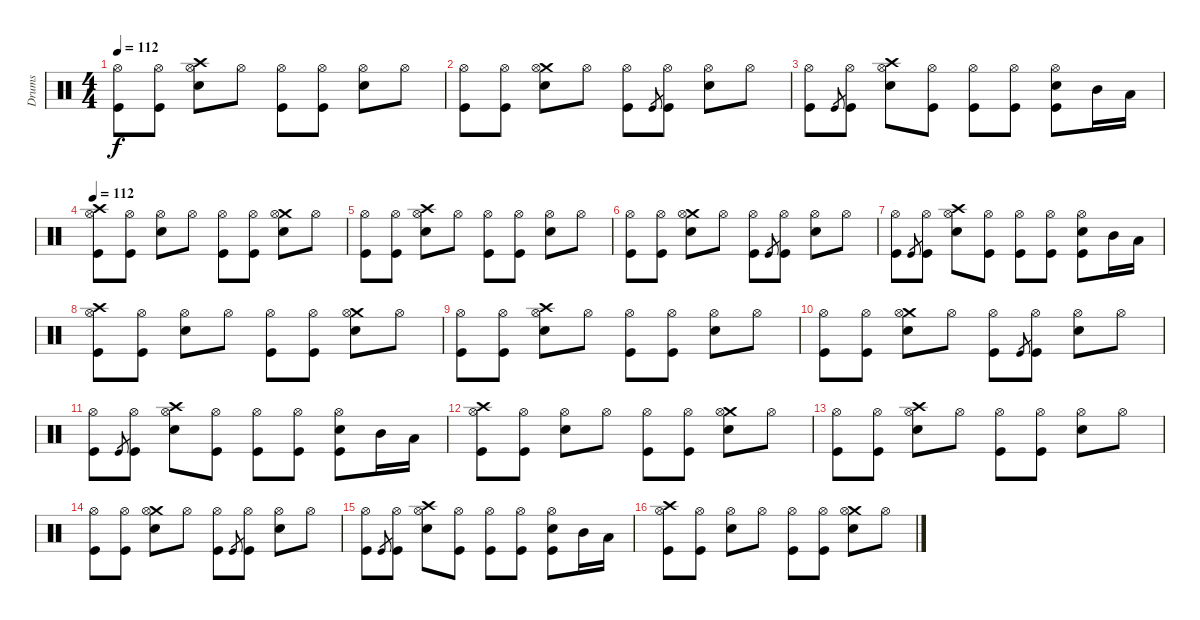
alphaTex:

\track ("Drums" "Drums") {instrument percussion}
\staff {score}
\articulation defaults
\ts (4 4)
\tempo 112
\clef neutral
\ks c
("Hi-Hat (open)" "Kick (hit)").8{dy f} ("Hi-Hat (open)" "Kick (hit)").8 ("Crash high (hit)" "Hi-Hat (open)" "Snare (hit) 2").8 "Hi-Hat (open)".8 ("Hi-Hat (open)" "Kick (hit)").8 ("Hi-Hat (open)" "Kick (hit)").8 ("Hi-Hat (open)" "Snare (hit) 2").8 "Hi-Hat (open)".8 |
("Hi-Hat (open)" "Kick (hit)").8 ("Hi-Hat (open)" "Kick (hit)").8 ("Crash medium (hit)" "Hi-Hat (open)" "Snare (hit) 2").8 "Hi-Hat (open)".8 ("Hi-Hat (open)" "Kick (hit)").8 "Kick (hit)".8{gr} ("Hi-Hat (open)" "Kick (hit)").8 ("Hi-Hat (open)" "Snare (hit) 2").8 "Hi-Hat (open)".8 |
("Hi-Hat (open)" "Kick (hit)").8 "Kick (hit)".8{gr} ("Hi-Hat (open)" "Kick (hit)").8 ("Crash high (hit)" "Hi-Hat (open)" "Snare (hit) 2").8 ("Hi-Hat (open)" "Kick (hit)").8 ("Hi-Hat (open)" "Kick (hit)").8 ("Hi-Hat (open)" "Kick (hit)").8 ("Hi-Hat (open)" "Snare (hit) 2" "Kick (hit)").8 "Mid Tom (hit)".16 "Low Tom (hit)".16 |
\tempo 112
("Crash high (hit)" "Hi-Hat (open)" "Kick (hit)").8{volume 16} ("Hi-Hat (open)" "Kick (hit)").8 ("Hi-Hat (open)" "Snare (hit) 2").8 "Hi-Hat (open)".8 ("Hi-Hat (open)" "Kick (hit)").8 ("Hi-Hat (open)" "Kick (hit)").8 ("Crash medium (hit)" "Hi-Hat (open)" "Snare (hit) 2").8 "Hi-Hat (open)".8 |
("Hi-Hat (open)" "Kick (hit)").8 ("Hi-Hat (open)" "Kick (hit)").8 ("Crash high (hit)" "Hi-Hat (open)" "Snare (hit) 2").8 "Hi-Hat (open)".8 ("Hi-Hat (open)" "Kick (hit)").8 ("Hi-Hat (open)" "Kick (hit)").8 ("Hi-Hat (open)" "Snare (hit) 2").8 "Hi-Hat (open)".8 |
("Hi-Hat (open)" "Kick (hit)").8 ("Hi-Hat (open)" "Kick (hit)").8 ("Crash medium (hit)" "Hi-Hat (open)" "Snare (hit) 2").8 "Hi-Hat (open)".8 ("Hi-Hat (open)" "Kick (hit)").8 "Kick (hit)".8{gr} ("Hi-Hat (open)" "Kick (hit)").8 ("Hi-Hat (open)" "Snare (hit) 2").8 "Hi-Hat (open)".8 |
("Hi-Hat (open)" "Kick (hit)").8 "Kick (hit)".8{gr} ("Hi-Hat (open)" "Kick (hit)").8 ("Crash high (hit)" "Hi-Hat (open)" "Snare (hit) 2").8 ("Hi-Hat (open)" "Kick (hit)").8 ("Hi-Hat (open)" "Kick (hit)").8 ("Hi-Hat (open)" "Kick (hit)").8 ("Hi-Hat (open)" "Snare (hit) 2" "Kick (hit)").8 "Mid Tom (hit)".16 "Low Tom (hit)".16 |
("Crash high (hit)" "Hi-Hat (open)" "Kick (hit)").8 ("Hi-Hat (open)" "Kick (hit)").8 ("Hi-Hat (open)" "Snare (hit) 2").8 "Hi-Hat (open)".8 ("Hi-Hat (open)" "Kick (hit)").8 ("Hi-Hat (open)" "Kick (hit)").8 ("Crash medium (hit)" "Hi-Hat (open)" "Snare (hit) 2").8 "Hi-Hat (open)".8 |
("Hi-Hat (open)" "Kick (hit)").8 ("Hi-Hat (open)" "Kick (hit)").8 ("Crash high (hit)" "Hi-Hat (open)" "Snare (hit) 2").8 "Hi-Hat (open)".8 ("Hi-Hat (open)" "Kick (hit)").8 ("Hi-Hat (open)" "Kick (hit)").8 ("Hi-Hat (open)" "Snare (hit) 2").8 "Hi-Hat (open)".8 |
("Hi-Hat (open)" "Kick (hit)").8 ("Hi-Hat (open)" "Kick (hit)").8 ("Crash medium (hit)" "Hi-Hat (open)" "Snare (hit) 2").8 "Hi-Hat (open)".8 ("Hi-Hat (open)" "Kick (hit)").8 "Kick (hit)".8{gr} ("Hi-Hat (open)" "Kick (hit)").8 ("Hi-Hat (open)" "Snare (hit) 2").8 "Hi-Hat (open)".8 |
("Hi-Hat (open)" "Kick (hit)").8 "Kick (hit)".8{gr} ("Hi-Hat (open)" "Kick (hit)").8 ("Crash high (hit)" "Hi-Hat (open)" "Snare (hit) 2").8 ("Hi-Hat (open)" "Kick (hit)").8 ("Hi-Hat (open)" "Kick (hit)").8 ("Hi-Hat (open)" "Kick (hit)").8 ("Hi-Hat (open)" "Snare (hit) 2" "Kick (hit)").8 "Mid Tom (hit)".16 "Low Tom (hit)".16 |
("Crash high (hit)" "Hi-Hat (open)" "Kick (hit)").8 ("Hi-Hat (open)" "Kick (hit)").8 ("Hi-Hat (open)" "Snare (hit) 2").8 "Hi-Hat (open)".8 ("Hi-Hat (open)" "Kick (hit)").8 ("Hi-Hat (open)" "Kick (hit)").8 ("Crash medium (hit)" "Hi-Hat (open)" "Snare (hit) 2").8 "Hi-Hat (open)".8 |
("Hi-Hat (open)" "Kick (hit)").8 ("Hi-Hat (open)" "Kick (hit)").8 ("Crash high (hit)" "Hi-Hat (open)" "Snare (hit) 2").8 "Hi-Hat (open)".8 ("Hi-Hat (open)" "Kick (hit)").8 ("Hi-Hat (open)" "Kick (hit)").8 ("Hi-Hat (open)" "Snare (hit) 2").8 "Hi-Hat (open)".8 |
("Hi-Hat (open)" "Kick (hit)").8 ("Hi-Hat (open)" "Kick (hit)").8 ("Crash medium (hit)" "Hi-Hat (open)" "Snare (hit) 2").8 "Hi-Hat (open)".8 ("Hi-Hat (open)" "Kick (hit)").8 "Kick (hit)".8{gr} ("Hi-Hat (open)" "Kick (hit)").8 ("Hi-Hat (open)" "Snare (hit) 2").8 "Hi-Hat (open)".8 |
("Hi-Hat (open)" "Kick (hit)").8 "Kick (hit)".8{gr} ("Hi-Hat (open)" "Kick (hit)").8 ("Crash high (hit)" "Hi-Hat (open)" "Snare (hit) 2").8 ("Hi-Hat (open)" "Kick (hit)").8 ("Hi-Hat (open)" "Kick (hit)").8 ("Hi-Hat (open)" "Kick (hit)").8 ("Hi-Hat (open)" "Snare (hit) 2" "Kick (hit)").8 "Mid Tom (hit)".16 "Low Tom (hit)".16 |
("Crash high (hit)" "Hi-Hat (open)" "Kick (hit)").8 ("Hi-Hat (open)" "Kick (hit)").8 ("Hi-Hat (open)" "Snare (hit) 2").8 "Hi-Hat (open)".8 ("Hi-Hat (open)" "Kick (hit)").8 ("Hi-Hat (open)" "Kick (hit)").8 ("Crash medium (hit)" "Hi-Hat (open)" "Snare (hit) 2").8 "Hi-Hat (open)".8
